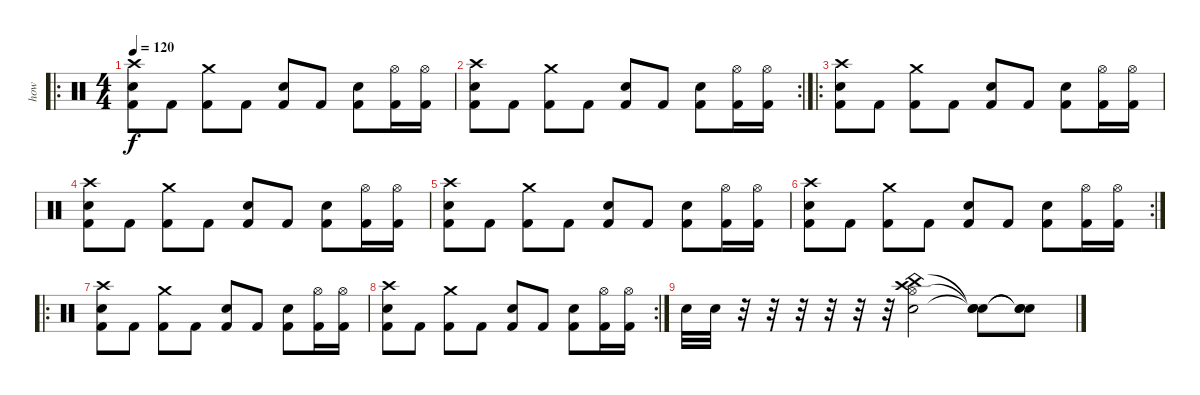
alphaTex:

\track ("how" "how") {instrument percussion}
\staff {score}
\articulation defaults
\ro
\ts (4 4)
\tempo 120
\clef neutral
\ks c
("Kick (hit) 2" "Electric Snare (hit)" "Crash high (hit)").8{dy f} "Kick (hit) 2".8 ("Kick (hit) 2" "Crash medium (hit)").8 "Kick (hit) 2".8 ("Kick (hit) 2" "Electric Snare (hit)").8 "Kick (hit) 2".8 ("Kick (hit) 2" "Electric Snare (hit)").8 ("Kick (hit) 2" "Hi-Hat (open)").16 ("Kick (hit) 2" "Hi-Hat (open)").16 |
\rc 2
("Kick (hit) 2" "Electric Snare (hit)" "Crash high (hit)").8 "Kick (hit) 2".8 ("Kick (hit) 2" "Crash medium (hit)").8 "Kick (hit) 2".8 ("Kick (hit) 2" "Electric Snare (hit)").8 "Kick (hit) 2".8 ("Kick (hit) 2" "Electric Snare (hit)").8 ("Kick (hit) 2" "Hi-Hat (open)").16 ("Kick (hit) 2" "Hi-Hat (open)").16 |
\ro
("Kick (hit) 2" "Electric Snare (hit)" "Crash high (hit)").8 "Kick (hit) 2".8 ("Kick (hit) 2" "Crash medium (hit)").8 "Kick (hit) 2".8 ("Kick (hit) 2" "Electric Snare (hit)").8 "Kick (hit) 2".8 ("Kick (hit) 2" "Electric Snare (hit)").8 ("Kick (hit) 2" "Hi-Hat (open)").16 ("Kick (hit) 2" "Hi-Hat (open)").16 |
("Kick (hit) 2" "Electric Snare (hit)" "Crash high (hit)").8 "Kick (hit) 2".8 ("Kick (hit) 2" "Crash medium (hit)").8 "Kick (hit) 2".8 ("Kick (hit) 2" "Electric Snare (hit)").8 "Kick (hit) 2".8 ("Kick (hit) 2" "Electric Snare (hit)").8 ("Kick (hit) 2" "Hi-Hat (open)").16 ("Kick (hit) 2" "Hi-Hat (open)").16 |
("Kick (hit) 2" "Electric Snare (hit)" "Crash high (hit)").8 "Kick (hit) 2".8 ("Kick (hit) 2" "Crash medium (hit)").8 "Kick (hit) 2".8 ("Kick (hit) 2" "Electric Snare (hit)").8 "Kick (hit) 2".8 ("Kick (hit) 2" "Electric Snare (hit)").8 ("Kick (hit) 2" "Hi-Hat (open)").16 ("Kick (hit) 2" "Hi-Hat (open)").16 |
\rc 2
("Kick (hit) 2" "Electric Snare (hit)" "Crash high (hit)").8 "Kick (hit) 2".8 ("Kick (hit) 2" "Crash medium (hit)").8 "Kick (hit) 2".8 ("Kick (hit) 2" "Electric Snare (hit)").8 "Kick (hit) 2".8 ("Kick (hit) 2" "Electric Snare (hit)").8 ("Kick (hit) 2" "Hi-Hat (open)").16 ("Kick (hit) 2" "Hi-Hat (open)").16 |
\ro
("Kick (hit) 2" "Electric Snare (hit)" "Crash high (hit)").8 "Kick (hit) 2".8 ("Kick (hit) 2" "Crash medium (hit)").8 "Kick (hit) 2".8 ("Kick (hit) 2" "Electric Snare (hit)").8 "Kick (hit) 2".8 ("Kick (hit) 2" "Electric Snare (hit)").8 ("Kick (hit) 2" "Hi-Hat (open)").16 ("Kick (hit) 2" "Hi-Hat (open)").16 |
\rc 2
("Kick (hit) 2" "Electric Snare (hit)" "Crash high (hit)").8 "Kick (hit) 2".8 ("Kick (hit) 2" "Crash medium (hit)").8 "Kick (hit) 2".8 ("Kick (hit) 2" "Electric Snare (hit)").8 "Kick (hit) 2".8 ("Kick (hit) 2" "Electric Snare (hit)").8 ("Kick (hit) 2" "Hi-Hat (open)").16 ("Kick (hit) 2" "Hi-Hat (open)").16 |
"Electric Snare (hit)".32 "Electric Snare (hit)".32 r.32 r.32 r.32 r.32 r.32 r.32 ("Hi-Hat (open)" "China (hit)" "Electric Snare (hit)" "Crash high (hit)").2 ("Snare (hit)"{t} "Snare (hit)"{t} "Snare (hit)"{t}).8 ("Snare (hit)"{t} "Snare (hit)"{t} "Snare (hit)"{t}).8
